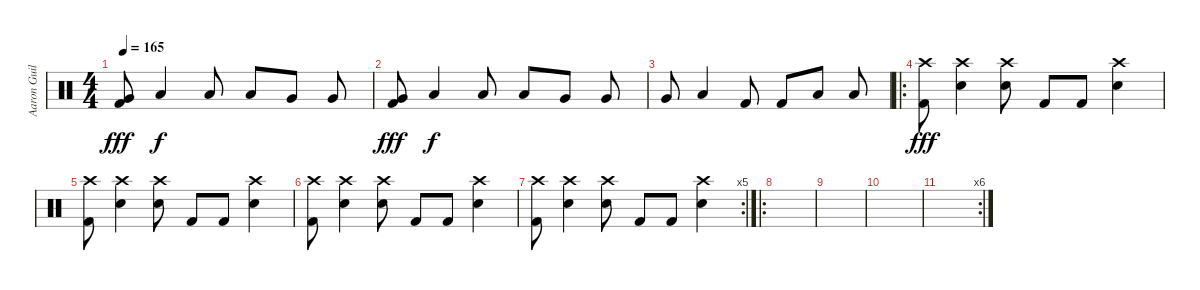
\track ("Aaron Guillespie" "Aaron Guil") {instrument percussion}
\staff {score}
\articulation defaults
\ts (4 4)
\tempo 165
\clef neutral
\ks c
("Very Low Tom (hit)" "Kick (hit) 2").8{dy fff} "Low Floor Tom (hit)".4{dy f} "Low Floor Tom (hit)".8 "Low Floor Tom (hit)".8 "Very Low Tom (hit)".8 "Very Low Tom (hit)".8 |
("Very Low Tom (hit)" "Kick (hit) 2").8{dy fff} "Low Floor Tom (hit)".4{dy f} "Low Floor Tom (hit)".8 "Low Floor Tom (hit)".8 "Very Low Tom (hit)".8 "Very Low Tom (hit)".8 |
"Very Low Tom (hit)".8 "Low Floor Tom (hit)".4 "Kick (hit) 2".8 "Kick (hit) 2".8 "Low Floor Tom (hit)".8 "Low Floor Tom (hit)".8 |
\ro
("Crash high (hit)" "Kick (hit) 2").8{dy fff} ("Crash high (hit)" "Electric Snare (hit)").4 ("Crash high (hit)" "Electric Snare (hit)").8 "Kick (hit) 2".8 "Kick (hit) 2".8 ("Crash high (hit)" "Electric Snare (hit)").4 |
("Crash high (hit)" "Kick (hit) 2").8 ("Crash high (hit)" "Electric Snare (hit)").4 ("Crash high (hit)" "Electric Snare (hit)").8 "Kick (hit) 2".8 "Kick (hit) 2".8 ("Crash high (hit)" "Electric Snare (hit)").4 |
("Crash high (hit)" "Kick (hit) 2").8 ("Crash high (hit)" "Electric Snare (hit)").4 ("Crash high (hit)" "Electric Snare (hit)").8 "Kick (hit) 2".8 "Kick (hit) 2".8 ("Crash high (hit)" "Electric Snare (hit)").4 |
\rc 5
("Crash high (hit)" "Kick (hit) 2").8 ("Crash high (hit)" "Electric Snare (hit)").4 ("Crash high (hit)" "Electric Snare (hit)").8 "Kick (hit) 2".8 "Kick (hit) 2".8 ("Crash high (hit)" "Electric Snare (hit)").4 |
\ro
|
|
|
\rc 6
